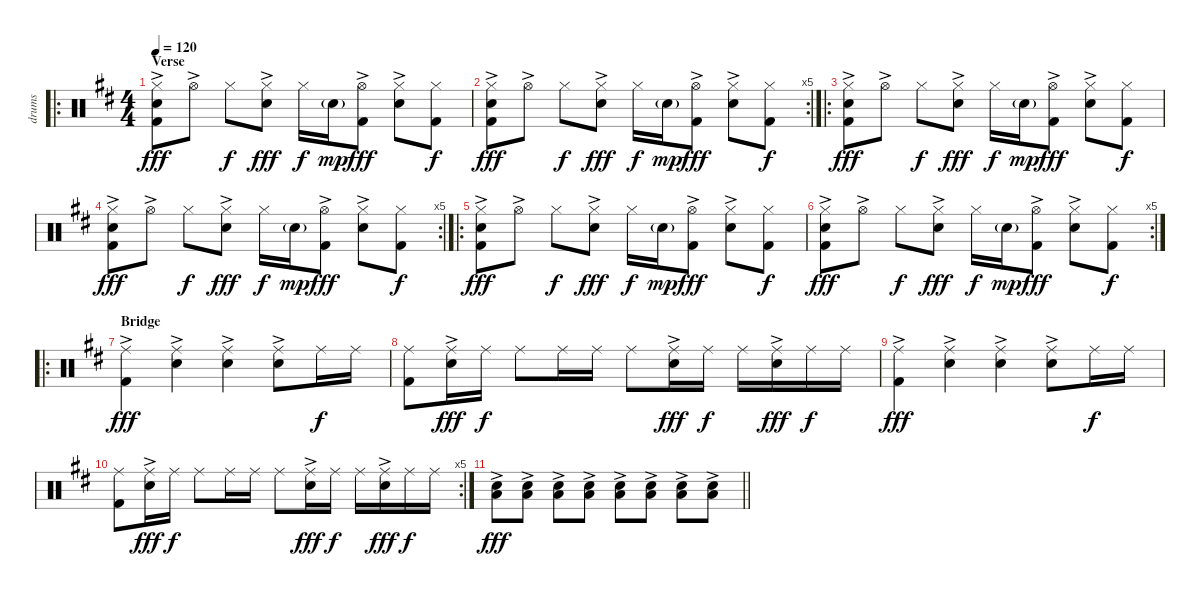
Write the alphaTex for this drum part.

\track ("drums" "drums") {instrument percussion}
\staff {score}
\articulation defaults
\ro
\ts (4 4)
\section ("" "Verse")
\tempo 120
\clef neutral
\ks d
("Hi-Hat (closed)" "Snare (hit) 2"{ac} "Kick (hit) 2").8{dy fff} "Hi-Hat (open)"{ac}.8 "Hi-Hat (closed)".8{dy f} ("Hi-Hat (closed)" "Snare (hit) 2"{ac}).8{dy fff} "Hi-Hat (closed)".16{dy f} "Snare (hit) 2"{g}.16{dy mp} ("Hi-Hat (open)"{ac} "Kick (hit) 2").8{dy fff} ("Hi-Hat (closed)" "Snare (hit) 2"{ac}).8 ("Hi-Hat (closed)" "Kick (hit) 2").8{dy f} |
\rc 5
("Hi-Hat (closed)" "Snare (hit) 2"{ac} "Kick (hit) 2").8{dy fff} "Hi-Hat (open)"{ac}.8 "Hi-Hat (closed)".8{dy f} ("Hi-Hat (closed)" "Snare (hit) 2"{ac}).8{dy fff} "Hi-Hat (closed)".16{dy f} "Snare (hit) 2"{g}.16{dy mp} ("Hi-Hat (open)"{ac} "Kick (hit) 2").8{dy fff} ("Hi-Hat (closed)" "Snare (hit) 2"{ac}).8 ("Hi-Hat (closed)" "Kick (hit) 2").8{dy f} |
\ro
("Hi-Hat (closed)" "Snare (hit) 2"{ac} "Kick (hit) 2").8{dy fff} "Hi-Hat (open)"{ac}.8 "Hi-Hat (closed)".8{dy f} ("Hi-Hat (closed)" "Snare (hit) 2"{ac}).8{dy fff} "Hi-Hat (closed)".16{dy f} "Snare (hit) 2"{g}.16{dy mp} ("Hi-Hat (open)"{ac} "Kick (hit) 2").8{dy fff} ("Hi-Hat (closed)" "Snare (hit) 2"{ac}).8 ("Hi-Hat (closed)" "Kick (hit) 2").8{dy f} |
\rc 5
("Hi-Hat (closed)" "Snare (hit) 2"{ac} "Kick (hit) 2").8{dy fff} "Hi-Hat (open)"{ac}.8 "Hi-Hat (closed)".8{dy f} ("Hi-Hat (closed)" "Snare (hit) 2"{ac}).8{dy fff} "Hi-Hat (closed)".16{dy f} "Snare (hit) 2"{g}.16{dy mp} ("Hi-Hat (open)"{ac} "Kick (hit) 2").8{dy fff} ("Hi-Hat (closed)" "Snare (hit) 2"{ac}).8 ("Hi-Hat (closed)" "Kick (hit) 2").8{dy f} |
\ro
("Hi-Hat (closed)" "Snare (hit) 2"{ac} "Kick (hit) 2").8{dy fff} "Hi-Hat (open)"{ac}.8 "Hi-Hat (closed)".8{dy f} ("Hi-Hat (closed)" "Snare (hit) 2"{ac}).8{dy fff} "Hi-Hat (closed)".16{dy f} "Snare (hit) 2"{g}.16{dy mp} ("Hi-Hat (open)"{ac} "Kick (hit) 2").8{dy fff} ("Hi-Hat (closed)" "Snare (hit) 2"{ac}).8 ("Hi-Hat (closed)" "Kick (hit) 2").8{dy f} |
\rc 5
("Hi-Hat (closed)" "Snare (hit) 2"{ac} "Kick (hit) 2").8{dy fff} "Hi-Hat (open)"{ac}.8 "Hi-Hat (closed)".8{dy f} ("Hi-Hat (closed)" "Snare (hit) 2"{ac}).8{dy fff} "Hi-Hat (closed)".16{dy f} "Snare (hit) 2"{g}.16{dy mp} ("Hi-Hat (open)"{ac} "Kick (hit) 2").8{dy fff} ("Hi-Hat (closed)" "Snare (hit) 2"{ac}).8 ("Hi-Hat (closed)" "Kick (hit) 2").8{dy f} |
\ro
\section ("" "Bridge")
("Ride (middle)"{ac} "Kick (hit) 2"{ac}).4{dy fff} ("Ride (middle)"{ac} "Snare (hit) 2").4 ("Ride (middle)"{ac} "Snare (hit) 2").4 ("Ride (middle)"{ac} "Snare (hit) 2").8 "Ride (middle)".16{dy f} "Ride (middle)".16 |
("Ride (middle)" "Kick (hit) 2").8 ("Ride (middle)" "Snare (hit) 2"{ac}).16{dy fff} "Ride (middle)".16{dy f} "Ride (middle)".8 "Ride (middle)".16 "Ride (middle)".16 "Ride (middle)".8 ("Ride (middle)" "Snare (hit) 2"{ac}).16{dy fff} "Ride (middle)".16{dy f} "Ride (middle)".16 ("Ride (middle)" "Snare (hit) 2"{ac}).16{dy fff} "Ride (middle)".16{dy f} "Ride (middle)".16 |
("Ride (middle)"{ac} "Kick (hit) 2").4{dy fff} ("Ride (middle)"{ac} "Snare (hit) 2").4 ("Ride (middle)"{ac} "Snare (hit) 2").4 ("Ride (middle)"{ac} "Snare (hit) 2").8 "Ride (middle)".16{dy f} "Ride (middle)".16 |
\rc 5
("Ride (middle)" "Kick (hit) 2").8 ("Ride (middle)" "Snare (hit) 2"{ac}).16{dy fff} "Ride (middle)".16{dy f} "Ride (middle)".8 "Ride (middle)".16 "Ride (middle)".16 "Ride (middle)".8 ("Ride (middle)" "Snare (hit) 2"{ac}).16{dy fff} "Ride (middle)".16{dy f} "Ride (middle)".16 ("Ride (middle)" "Snare (hit) 2"{ac}).16{dy fff} "Ride (middle)".16{dy f} "Ride (middle)".16 |
\barLineRight lightlight
("Snare (hit) 2" "Low Floor Tom (hit)"{ac}).8{dy fff} ("Snare (hit) 2" "Low Floor Tom (hit)"{ac}).8 ("Snare (hit) 2" "Low Floor Tom (hit)"{ac}).8 ("Snare (hit) 2" "Low Floor Tom (hit)"{ac}).8 ("Snare (hit) 2" "Low Floor Tom (hit)"{ac}).8 ("Snare (hit) 2" "Low Floor Tom (hit)"{ac}).8 ("Snare (hit) 2" "Low Floor Tom (hit)"{ac}).8 ("Snare (hit) 2" "Low Floor Tom (hit)"{ac}).8
